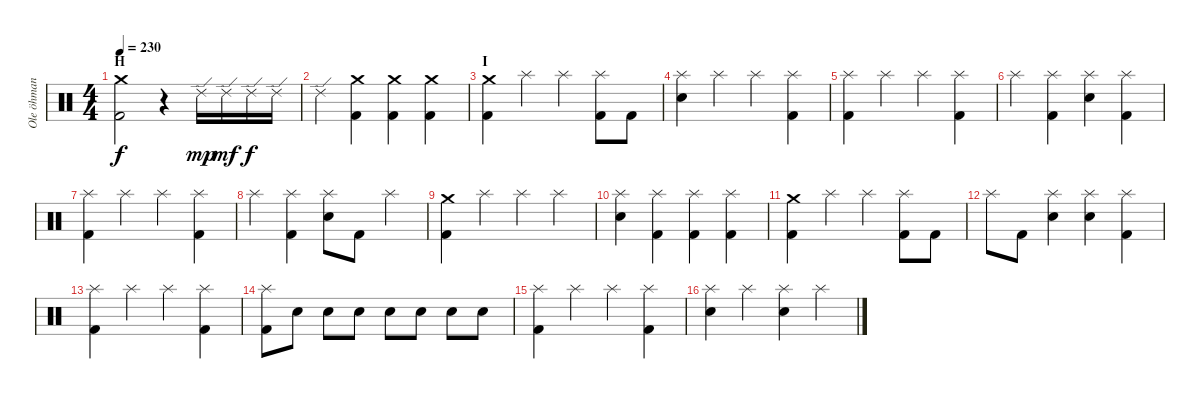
\track ("Ole öhman" "Ole öhman") {instrument percussion}
\staff {score}
\articulation defaults
\ts (4 4)
\section ("" "H")
\tempo 230
\clef neutral
\ks c
("Crash medium (hit)" "Kick (hit) 2").2{dy f} r.4 "Ride (edge) 2".16{dy mp} "Ride (edge) 2".16{dy mf} "Ride (edge) 2".16{dy f} "Ride (edge) 2".16 |
"Ride (edge) 2".4 ("Crash medium (hit)" "Kick (hit) 2").4 ("Crash medium (hit)" "Kick (hit) 2").4 ("Crash medium (hit)" "Kick (hit) 2").4 |
\section ("" "I")
("Crash medium (hit)" "Kick (hit) 2").4 "Splash (hit)".4 "Splash (hit)".4 ("Splash (hit)" "Kick (hit) 2").8 "Kick (hit) 2".8 |
("Splash (hit)" "Electric Snare (hit)").4 "Splash (hit)".4 "Splash (hit)".4 ("Splash (hit)" "Kick (hit) 2").4 |
("Splash (hit)" "Kick (hit) 2").4 "Splash (hit)".4 "Splash (hit)".4 ("Splash (hit)" "Kick (hit) 2").4 |
"Splash (hit)".4 ("Splash (hit)" "Kick (hit) 2").4 ("Splash (hit)" "Electric Snare (hit)").4 ("Splash (hit)" "Kick (hit) 2").4 |
("Splash (hit)" "Kick (hit) 2").4 "Splash (hit)".4 "Splash (hit)".4 ("Splash (hit)" "Kick (hit) 2").4 |
"Splash (hit)".4 ("Splash (hit)" "Kick (hit) 2").4 ("Splash (hit)" "Electric Snare (hit)").8 "Kick (hit) 2".8 "Splash (hit)".4 |
("Crash medium (hit)" "Kick (hit) 2").4 "Splash (hit)".4 "Splash (hit)".4 "Splash (hit)".4 |
("Splash (hit)" "Electric Snare (hit)").4 ("Splash (hit)" "Kick (hit) 2").4 ("Splash (hit)" "Kick (hit) 2").4 ("Splash (hit)" "Kick (hit) 2").4 |
("Crash medium (hit)" "Kick (hit) 2").4 "Splash (hit)".4 "Splash (hit)".4 ("Splash (hit)" "Kick (hit) 2").8 "Kick (hit) 2".8 |
"Splash (hit)".8 "Kick (hit) 2".8 ("Splash (hit)" "Electric Snare (hit)").4 ("Splash (hit)" "Electric Snare (hit)").4 ("Splash (hit)" "Kick (hit) 2").4 |
("Splash (hit)" "Kick (hit) 2").4 "Splash (hit)".4 "Splash (hit)".4 ("Splash (hit)" "Kick (hit) 2").4 |
("Splash (hit)" "Kick (hit) 2").8 "Electric Snare (hit)".8 "Electric Snare (hit)".8 "Electric Snare (hit)".8 "Electric Snare (hit)".8 "Electric Snare (hit)".8 "Electric Snare (hit)".8 "Electric Snare (hit)".8 |
("Splash (hit)" "Kick (hit) 2").4 "Splash (hit)".4 "Splash (hit)".4 ("Splash (hit)" "Kick (hit) 2").4 |
("Splash (hit)" "Electric Snare (hit)").4 "Splash (hit)".4 ("Splash (hit)" "Electric Snare (hit)").4 "Splash (hit)".4
